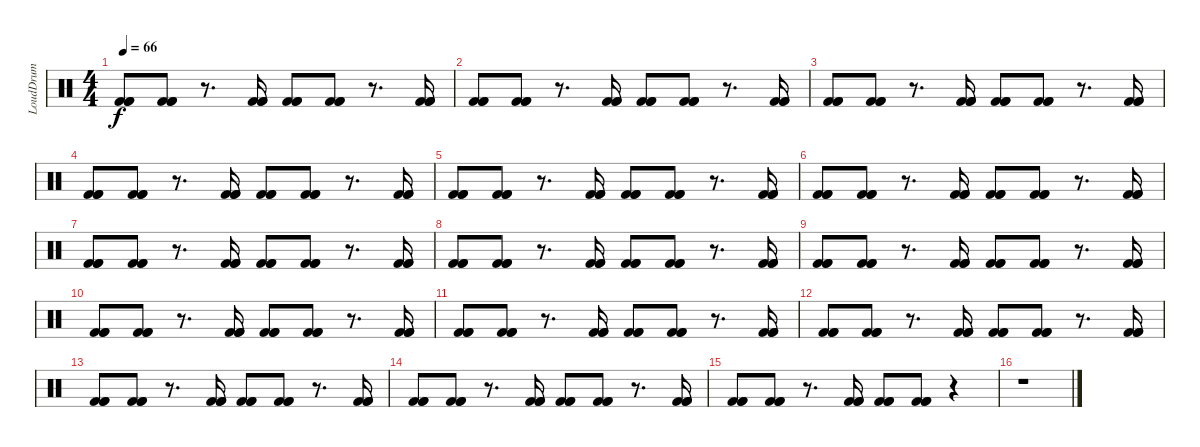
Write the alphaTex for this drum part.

\track ("LoudDrum" "LoudDrum") {instrument percussion}
\staff {score}
\articulation defaults
\ts (4 4)
\tempo 66
\clef neutral
\ks c
("Kick (hit) 2" "Kick (hit) 2" "Kick (hit) 2").8{dy f} ("Kick (hit) 2" "Kick (hit) 2" "Kick (hit) 2").8 r.8{d} ("Kick (hit) 2" "Kick (hit) 2" "Kick (hit) 2").16 ("Kick (hit) 2" "Kick (hit) 2" "Kick (hit) 2").8 ("Kick (hit) 2" "Kick (hit) 2" "Kick (hit) 2").8 r.8{d} ("Kick (hit) 2" "Kick (hit) 2" "Kick (hit) 2").16 |
("Kick (hit) 2" "Kick (hit) 2" "Kick (hit) 2").8 ("Kick (hit) 2" "Kick (hit) 2" "Kick (hit) 2").8 r.8{d} ("Kick (hit) 2" "Kick (hit) 2" "Kick (hit) 2").16 ("Kick (hit) 2" "Kick (hit) 2" "Kick (hit) 2").8 ("Kick (hit) 2" "Kick (hit) 2" "Kick (hit) 2").8 r.8{d} ("Kick (hit) 2" "Kick (hit) 2" "Kick (hit) 2").16 |
("Kick (hit) 2" "Kick (hit) 2" "Kick (hit) 2").8 ("Kick (hit) 2" "Kick (hit) 2" "Kick (hit) 2").8 r.8{d} ("Kick (hit) 2" "Kick (hit) 2" "Kick (hit) 2").16 ("Kick (hit) 2" "Kick (hit) 2" "Kick (hit) 2").8 ("Kick (hit) 2" "Kick (hit) 2" "Kick (hit) 2").8 r.8{d} ("Kick (hit) 2" "Kick (hit) 2" "Kick (hit) 2").16 |
("Kick (hit) 2" "Kick (hit) 2" "Kick (hit) 2").8 ("Kick (hit) 2" "Kick (hit) 2" "Kick (hit) 2").8 r.8{d} ("Kick (hit) 2" "Kick (hit) 2" "Kick (hit) 2").16 ("Kick (hit) 2" "Kick (hit) 2" "Kick (hit) 2").8 ("Kick (hit) 2" "Kick (hit) 2" "Kick (hit) 2").8 r.8{d} ("Kick (hit) 2" "Kick (hit) 2" "Kick (hit) 2").16 |
("Kick (hit) 2" "Kick (hit) 2" "Kick (hit) 2").8 ("Kick (hit) 2" "Kick (hit) 2" "Kick (hit) 2").8 r.8{d} ("Kick (hit) 2" "Kick (hit) 2" "Kick (hit) 2").16 ("Kick (hit) 2" "Kick (hit) 2" "Kick (hit) 2").8 ("Kick (hit) 2" "Kick (hit) 2" "Kick (hit) 2").8 r.8{d} ("Kick (hit) 2" "Kick (hit) 2" "Kick (hit) 2").16 |
("Kick (hit) 2" "Kick (hit) 2" "Kick (hit) 2").8 ("Kick (hit) 2" "Kick (hit) 2" "Kick (hit) 2").8 r.8{d} ("Kick (hit) 2" "Kick (hit) 2" "Kick (hit) 2").16 ("Kick (hit) 2" "Kick (hit) 2" "Kick (hit) 2").8 ("Kick (hit) 2" "Kick (hit) 2" "Kick (hit) 2").8 r.8{d} ("Kick (hit) 2" "Kick (hit) 2" "Kick (hit) 2").16 |
("Kick (hit) 2" "Kick (hit) 2" "Kick (hit) 2").8 ("Kick (hit) 2" "Kick (hit) 2" "Kick (hit) 2").8 r.8{d} ("Kick (hit) 2" "Kick (hit) 2" "Kick (hit) 2").16 ("Kick (hit) 2" "Kick (hit) 2" "Kick (hit) 2").8 ("Kick (hit) 2" "Kick (hit) 2" "Kick (hit) 2").8 r.8{d} ("Kick (hit) 2" "Kick (hit) 2" "Kick (hit) 2").16 |
("Kick (hit) 2" "Kick (hit) 2" "Kick (hit) 2").8 ("Kick (hit) 2" "Kick (hit) 2" "Kick (hit) 2").8 r.8{d} ("Kick (hit) 2" "Kick (hit) 2" "Kick (hit) 2").16 ("Kick (hit) 2" "Kick (hit) 2" "Kick (hit) 2").8 ("Kick (hit) 2" "Kick (hit) 2" "Kick (hit) 2").8 r.8{d} ("Kick (hit) 2" "Kick (hit) 2" "Kick (hit) 2").16 |
("Kick (hit) 2" "Kick (hit) 2" "Kick (hit) 2").8 ("Kick (hit) 2" "Kick (hit) 2" "Kick (hit) 2").8 r.8{d} ("Kick (hit) 2" "Kick (hit) 2" "Kick (hit) 2").16 ("Kick (hit) 2" "Kick (hit) 2" "Kick (hit) 2").8 ("Kick (hit) 2" "Kick (hit) 2" "Kick (hit) 2").8 r.8{d} ("Kick (hit) 2" "Kick (hit) 2" "Kick (hit) 2").16 |
("Kick (hit) 2" "Kick (hit) 2" "Kick (hit) 2").8 ("Kick (hit) 2" "Kick (hit) 2" "Kick (hit) 2").8 r.8{d} ("Kick (hit) 2" "Kick (hit) 2" "Kick (hit) 2").16 ("Kick (hit) 2" "Kick (hit) 2" "Kick (hit) 2").8 ("Kick (hit) 2" "Kick (hit) 2" "Kick (hit) 2").8 r.8{d} ("Kick (hit) 2" "Kick (hit) 2" "Kick (hit) 2").16 |
("Kick (hit) 2" "Kick (hit) 2" "Kick (hit) 2").8 ("Kick (hit) 2" "Kick (hit) 2" "Kick (hit) 2").8 r.8{d} ("Kick (hit) 2" "Kick (hit) 2" "Kick (hit) 2").16 ("Kick (hit) 2" "Kick (hit) 2" "Kick (hit) 2").8 ("Kick (hit) 2" "Kick (hit) 2" "Kick (hit) 2").8 r.8{d} ("Kick (hit) 2" "Kick (hit) 2" "Kick (hit) 2").16 |
("Kick (hit) 2" "Kick (hit) 2" "Kick (hit) 2").8 ("Kick (hit) 2" "Kick (hit) 2" "Kick (hit) 2").8 r.8{d} ("Kick (hit) 2" "Kick (hit) 2" "Kick (hit) 2").16 ("Kick (hit) 2" "Kick (hit) 2" "Kick (hit) 2").8 ("Kick (hit) 2" "Kick (hit) 2" "Kick (hit) 2").8 r.8{d} ("Kick (hit) 2" "Kick (hit) 2" "Kick (hit) 2").16 |
("Kick (hit) 2" "Kick (hit) 2" "Kick (hit) 2").8 ("Kick (hit) 2" "Kick (hit) 2" "Kick (hit) 2").8 r.8{d} ("Kick (hit) 2" "Kick (hit) 2" "Kick (hit) 2").16 ("Kick (hit) 2" "Kick (hit) 2" "Kick (hit) 2").8 ("Kick (hit) 2" "Kick (hit) 2" "Kick (hit) 2").8 r.8{d} ("Kick (hit) 2" "Kick (hit) 2" "Kick (hit) 2").16 |
("Kick (hit) 2" "Kick (hit) 2" "Kick (hit) 2").8 ("Kick (hit) 2" "Kick (hit) 2" "Kick (hit) 2").8 r.8{d} ("Kick (hit) 2" "Kick (hit) 2" "Kick (hit) 2").16 ("Kick (hit) 2" "Kick (hit) 2" "Kick (hit) 2").8 ("Kick (hit) 2" "Kick (hit) 2" "Kick (hit) 2").8 r.8{d} ("Kick (hit) 2" "Kick (hit) 2" "Kick (hit) 2").16 |
("Kick (hit) 2" "Kick (hit) 2" "Kick (hit) 2").8 ("Kick (hit) 2" "Kick (hit) 2" "Kick (hit) 2").8 r.8{d} ("Kick (hit) 2" "Kick (hit) 2" "Kick (hit) 2").16 ("Kick (hit) 2" "Kick (hit) 2" "Kick (hit) 2").8 ("Kick (hit) 2" "Kick (hit) 2" "Kick (hit) 2").8 r.4 |
r.1
